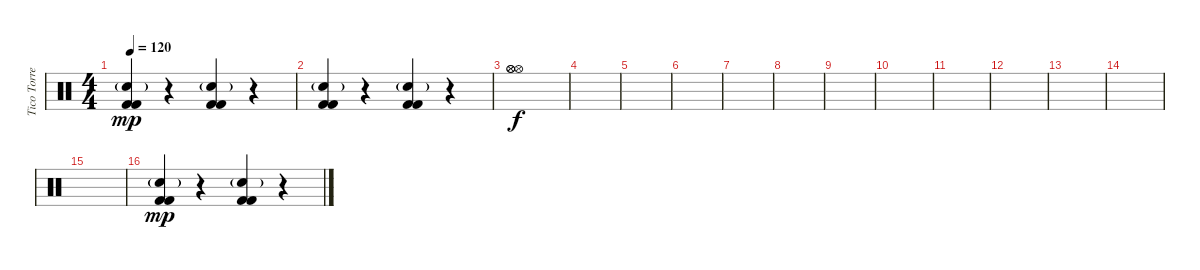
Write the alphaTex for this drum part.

\track ("Tico Torres" "Tico Torre") {instrument percussion}
\staff {score}
\articulation defaults
\ts (4 4)
\tempo 120
\clef neutral
\ks c
("Electric Snare (hit)"{g} "Kick (hit) 2" "Kick (hit) 2").4{dy mp} r.4 ("Electric Snare (hit)"{g} "Kick (hit) 2" "Kick (hit) 2").4 r.4 |
("Electric Snare (hit)"{g} "Kick (hit) 2" "Kick (hit) 2").4 r.4 ("Electric Snare (hit)"{g} "Kick (hit) 2" "Kick (hit) 2").4 r.4 |
("Hi-Hat (open)" "Hi-Hat (open)" "Hi-Hat (open)").1{dy f} |
|
|
|
|
|
|
|
|
|
|
|
|
("Electric Snare (hit)"{g} "Kick (hit) 2" "Kick (hit) 2").4{dy mp} r.4 ("Electric Snare (hit)"{g} "Kick (hit) 2" "Kick (hit) 2").4 r.4
